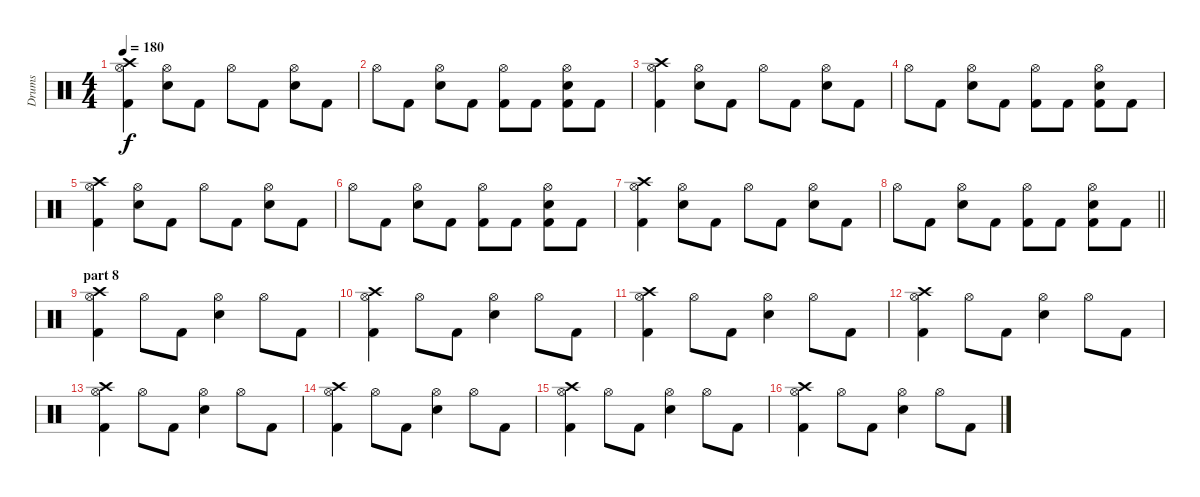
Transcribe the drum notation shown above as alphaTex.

\track ("Drums" "Drums") {instrument percussion}
\staff {score}
\articulation defaults
\ts (4 4)
\tempo 180
\clef neutral
\ks c
("Crash high (hit)" "Hi-Hat (open)" "Kick (hit) 2").4{dy f} ("Hi-Hat (open)" "Electric Snare (hit)").8 "Kick (hit) 2".8 "Hi-Hat (open)".8 "Kick (hit) 2".8 ("Hi-Hat (open)" "Electric Snare (hit)").8 "Kick (hit) 2".8 |
"Hi-Hat (open)".8 "Kick (hit) 2".8 ("Hi-Hat (open)" "Electric Snare (hit)").8 "Kick (hit) 2".8 ("Hi-Hat (open)" "Kick (hit) 2").8 "Kick (hit) 2".8 ("Hi-Hat (open)" "Electric Snare (hit)" "Kick (hit) 2").8 "Kick (hit) 2".8 |
("Crash high (hit)" "Hi-Hat (open)" "Kick (hit) 2").4 ("Hi-Hat (open)" "Electric Snare (hit)").8 "Kick (hit) 2".8 "Hi-Hat (open)".8 "Kick (hit) 2".8 ("Hi-Hat (open)" "Electric Snare (hit)").8 "Kick (hit) 2".8 |
"Hi-Hat (open)".8 "Kick (hit) 2".8 ("Hi-Hat (open)" "Electric Snare (hit)").8 "Kick (hit) 2".8 ("Hi-Hat (open)" "Kick (hit) 2").8 "Kick (hit) 2".8 ("Hi-Hat (open)" "Electric Snare (hit)" "Kick (hit) 2").8 "Kick (hit) 2".8 |
("Crash high (hit)" "Hi-Hat (open)" "Kick (hit) 2").4 ("Hi-Hat (open)" "Electric Snare (hit)").8 "Kick (hit) 2".8 "Hi-Hat (open)".8 "Kick (hit) 2".8 ("Hi-Hat (open)" "Electric Snare (hit)").8 "Kick (hit) 2".8 |
"Hi-Hat (open)".8 "Kick (hit) 2".8 ("Hi-Hat (open)" "Electric Snare (hit)").8 "Kick (hit) 2".8 ("Hi-Hat (open)" "Kick (hit) 2").8 "Kick (hit) 2".8 ("Hi-Hat (open)" "Electric Snare (hit)" "Kick (hit) 2").8 "Kick (hit) 2".8 |
("Crash high (hit)" "Hi-Hat (open)" "Kick (hit) 2").4 ("Hi-Hat (open)" "Electric Snare (hit)").8 "Kick (hit) 2".8 "Hi-Hat (open)".8 "Kick (hit) 2".8 ("Hi-Hat (open)" "Electric Snare (hit)").8 "Kick (hit) 2".8 |
\barLineRight lightlight "Hi-Hat (open)".8 "Kick (hit) 2".8
("Hi-Hat (open)" "Electric Snare (hit)").8 "Kick (hit) 2".8 ("Hi-Hat (open)" "Kick (hit) 2").8 "Kick (hit) 2".8 ("Hi-Hat (open)" "Electric Snare (hit)" "Kick (hit) 2").8 "Kick (hit) 2".8 |
\section ("" "part 8")
("Crash high (hit)" "Hi-Hat (open)" "Kick (hit) 2").4 "Hi-Hat (open)".8 "Kick (hit) 2".8 ("Hi-Hat (open)" "Electric Snare (hit)").4 "Hi-Hat (open)".8 "Kick (hit) 2".8 |
("Crash high (hit)" "Hi-Hat (open)" "Kick (hit) 2").4 "Hi-Hat (open)".8 "Kick (hit) 2".8 ("Hi-Hat (open)" "Electric Snare (hit)").4 "Hi-Hat (open)".8 "Kick (hit) 2".8 |
("Crash high (hit)" "Hi-Hat (open)" "Kick (hit) 2").4 "Hi-Hat (open)".8 "Kick (hit) 2".8 ("Hi-Hat (open)" "Electric Snare (hit)").4 "Hi-Hat (open)".8 "Kick (hit) 2".8 |
("Crash high (hit)" "Hi-Hat (open)" "Kick (hit) 2").4 "Hi-Hat (open)".8 "Kick (hit) 2".8 ("Hi-Hat (open)" "Electric Snare (hit)").4 "Hi-Hat (open)".8 "Kick (hit) 2".8 |
("Crash high (hit)" "Hi-Hat (open)" "Kick (hit) 2").4 "Hi-Hat (open)".8 "Kick (hit) 2".8 ("Hi-Hat (open)" "Electric Snare (hit)").4 "Hi-Hat (open)".8 "Kick (hit) 2".8 |
("Crash high (hit)" "Hi-Hat (open)" "Kick (hit) 2").4 "Hi-Hat (open)".8 "Kick (hit) 2".8 ("Hi-Hat (open)" "Electric Snare (hit)").4 "Hi-Hat (open)".8 "Kick (hit) 2".8 |
("Crash high (hit)" "Hi-Hat (open)" "Kick (hit) 2").4 "Hi-Hat (open)".8 "Kick (hit) 2".8 ("Hi-Hat (open)" "Electric Snare (hit)").4 "Hi-Hat (open)".8 "Kick (hit) 2".8 |
("Crash high (hit)" "Hi-Hat (open)" "Kick (hit) 2").4 "Hi-Hat (open)".8 "Kick (hit) 2".8 ("Hi-Hat (open)" "Electric Snare (hit)").4 "Hi-Hat (open)".8 "Kick (hit) 2".8
